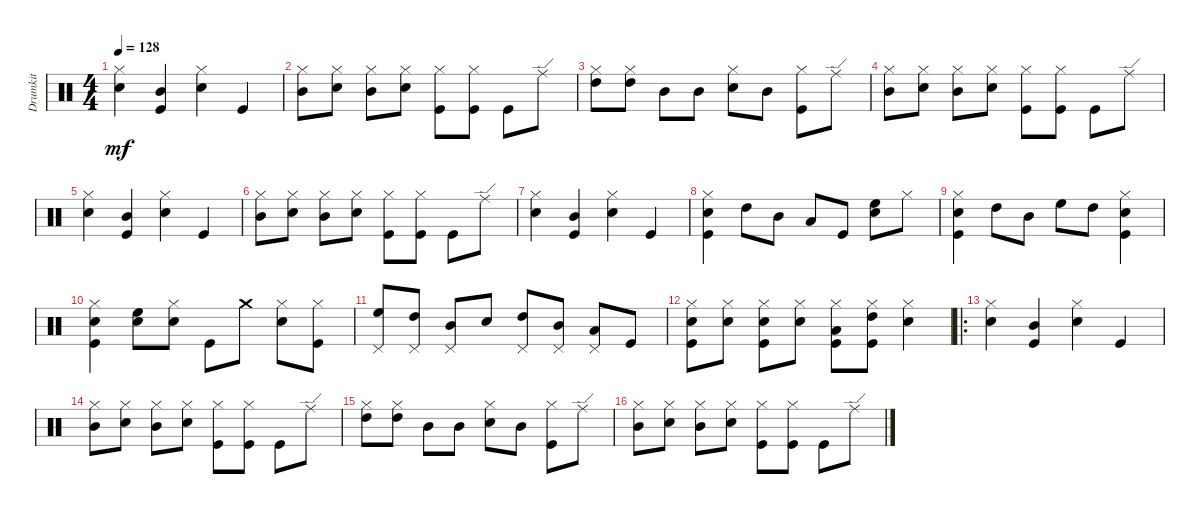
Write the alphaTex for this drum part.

\track ("Drumkit" "Drumkit") {instrument percussion}
\staff {score}
\articulation defaults
\ts (4 4)
\tempo 128
\clef neutral
\ks c
("Hi-Hat (closed)" "Snare (hit) 2").4{dy mf} ("Kick (hit)" "Mid Tom (hit)").4 ("Snare (hit) 2" "Hi-Hat (closed)").4 "Kick (hit)".4 |
("Mid Tom (hit)" "Hi-Hat (closed)").8 ("Hi-Hat (closed)" "Snare (hit) 2").8 ("Hi-Hat (closed)" "Mid Tom (hit)").8 ("Hi-Hat (closed)" "Snare (hit) 2").8 ("Kick (hit)" "Hi-Hat (closed)").8 ("Kick (hit)" "Hi-Hat (closed)").8 "Kick (hit)".8 "Ride (edge)".8 |
("High Tom (hit)" "Hi-Hat (closed)").8 ("High Tom (hit)" "Hi-Hat (closed)").8 "Mid Tom (hit)".8 "Mid Tom (hit)".8 ("Snare (hit) 2" "Hi-Hat (closed)").8 "Mid Tom (hit)".8 ("Kick (hit)" "Hi-Hat (closed)").8 "Ride (edge)".8 |
("Mid Tom (hit)" "Hi-Hat (closed)").8 ("Hi-Hat (closed)" "Snare (hit) 2").8 ("Hi-Hat (closed)" "Mid Tom (hit)").8 ("Hi-Hat (closed)" "Snare (hit) 2").8 ("Kick (hit)" "Hi-Hat (closed)").8 ("Kick (hit)" "Hi-Hat (closed)").8 "Kick (hit)".8 "Ride (edge)".8 |
("Hi-Hat (closed)" "Snare (hit) 2").4 ("Kick (hit)" "Mid Tom (hit)").4 ("Snare (hit) 2" "Hi-Hat (closed)").4 "Kick (hit)".4 |
("Mid Tom (hit)" "Hi-Hat (closed)").8 ("Hi-Hat (closed)" "Snare (hit) 2").8 ("Hi-Hat (closed)" "Mid Tom (hit)").8 ("Hi-Hat (closed)" "Snare (hit) 2").8 ("Kick (hit)" "Hi-Hat (closed)").8 ("Kick (hit)" "Hi-Hat (closed)").8 "Kick (hit)".8 "Ride (edge)".8 |
("Hi-Hat (closed)" "Snare (hit) 2").4 ("Kick (hit)" "Mid Tom (hit)").4 ("Snare (hit) 2" "Hi-Hat (closed)").4 "Kick (hit)".4 |
("Hi-Hat (closed)" "Snare (hit) 2" "Kick (hit)").4 "High Tom (hit)".8 "Mid Tom (hit)".8 "Low Tom (hit)".8 "Kick (hit)".8 ("Snare (hit) 2" "High Floor Tom (hit)").8 "Hi-Hat (closed)".8 |
("Hi-Hat (closed)" "Snare (hit) 2" "Kick (hit)").4 "High Tom (hit)".8 "Mid Tom (hit)".8 "High Floor Tom (hit)".8 "High Tom (hit)".8 ("Hi-Hat (closed)" "Snare (hit) 2" "Kick (hit)").4 |
("Hi-Hat (closed)" "Snare (hit) 2" "Kick (hit)").4 ("Snare (hit) 2" "High Floor Tom (hit)").8 ("Hi-Hat (closed)" "Snare (hit) 2").8 "Kick (hit)".8 "Crash medium (hit)".8 ("Hi-Hat (closed)" "Snare (hit) 2").8 ("Hi-Hat (closed)" "Kick (hit)").8 |
("High Floor Tom (hit)" "Pedal Hi-Hat (hit)").8 ("High Tom (hit)" "Pedal Hi-Hat (hit)").8 ("Mid Tom (hit)" "Pedal Hi-Hat (hit)").8 "Snare (hit) 2".8 ("High Tom (hit)" "Pedal Hi-Hat (hit)").8 ("Mid Tom (hit)" "Pedal Hi-Hat (hit)").8 ("Low Tom (hit)" "Pedal Hi-Hat (hit)").8 "Kick (hit)".8 |
("Hi-Hat (closed)" "Snare (hit) 2" "Kick (hit)").8 ("Hi-Hat (closed)" "Snare (hit) 2").8 ("Snare (hit) 2" "Hi-Hat (closed)" "Kick (hit)").8 ("Snare (hit) 2" "Hi-Hat (closed)").8 ("Kick (hit)" "Hi-Hat (closed)" "Low Tom (hit)").8 ("Hi-Hat (closed)" "Kick (hit)" "High Tom (hit)").8 ("Snare (hit) 2" "Hi-Hat (closed)").4 |
\ro
("Hi-Hat (closed)" "Snare (hit) 2").4 ("Kick (hit)" "Mid Tom (hit)").4 ("Snare (hit) 2" "Hi-Hat (closed)").4 "Kick (hit)".4 |
("Mid Tom (hit)" "Hi-Hat (closed)").8 ("Hi-Hat (closed)" "Snare (hit) 2").8 ("Hi-Hat (closed)" "Mid Tom (hit)").8 ("Hi-Hat (closed)" "Snare (hit) 2").8 ("Kick (hit)" "Hi-Hat (closed)").8 ("Kick (hit)" "Hi-Hat (closed)").8 "Kick (hit)".8 "Ride (edge)".8 |
("High Tom (hit)" "Hi-Hat (closed)").8 ("High Tom (hit)" "Hi-Hat (closed)").8 "Mid Tom (hit)".8 "Mid Tom (hit)".8 ("Snare (hit) 2" "Hi-Hat (closed)").8 "Mid Tom (hit)".8 ("Kick (hit)" "Hi-Hat (closed)").8 "Ride (edge)".8 |
("Mid Tom (hit)" "Hi-Hat (closed)").8 ("Hi-Hat (closed)" "Snare (hit) 2").8 ("Hi-Hat (closed)" "Mid Tom (hit)").8 ("Hi-Hat (closed)" "Snare (hit) 2").8 ("Kick (hit)" "Hi-Hat (closed)").8 ("Kick (hit)" "Hi-Hat (closed)").8 "Kick (hit)".8 "Ride (edge)".8
